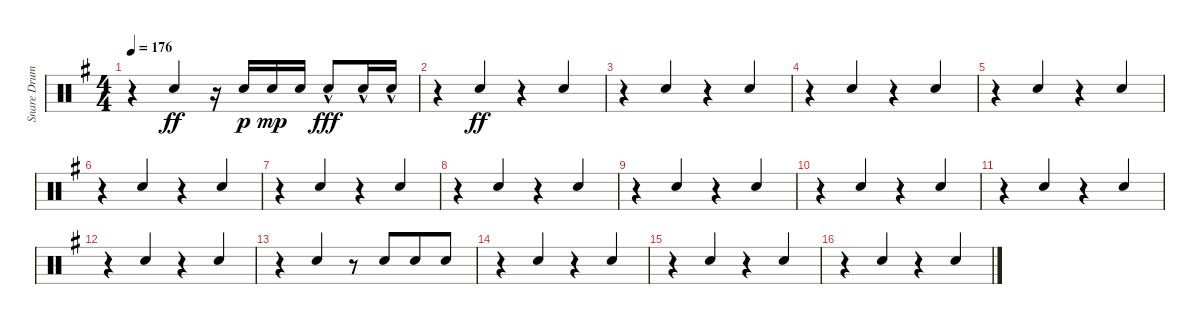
\track ("Snare Drum" "Snare Drum") {instrument percussion}
\staff {score}
\articulation defaults
\ts (4 4)
\tempo 176
\clef neutral
\ks eminor
r.4{dy ff} "Electric Snare (hit)".4{beam Up} r.16 "Snare (hit) 2".16{dy p beam Up} "Electric Snare (hit)".16{dy mp beam Up} "Electric Snare (hit)".16{beam Up} "Electric Snare (hit)"{hac}.8{dy fff beam Up} "Electric Snare (hit)"{hac}.16{beam Up} "Electric Snare (hit)"{hac}.16{beam Up} |
r.4 "Electric Snare (hit)".4{dy ff beam Up} r.4 "Electric Snare (hit)".4{beam Up} |
r.4 "Electric Snare (hit)".4{beam Up} r.4 "Electric Snare (hit)".4{beam Up} |
r.4 "Electric Snare (hit)".4{beam Up} r.4 "Electric Snare (hit)".4{beam Up} |
r.4 "Electric Snare (hit)".4{beam Up} r.4 "Electric Snare (hit)".4{beam Up} |
r.4 "Electric Snare (hit)".4{beam Up} r.4 "Electric Snare (hit)".4{beam Up} |
r.4 "Electric Snare (hit)".4{beam Up} r.4 "Electric Snare (hit)".4{beam Up} |
r.4 "Electric Snare (hit)".4{beam Up} r.4 "Electric Snare (hit)".4{beam Up} |
r.4 "Electric Snare (hit)".4{beam Up} r.4 "Electric Snare (hit)".4{beam Up} |
r.4 "Electric Snare (hit)".4{beam Up} r.4 "Electric Snare (hit)".4{beam Up} |
r.4 "Electric Snare (hit)".4{beam Up} r.4 "Electric Snare (hit)".4{beam Up} |
r.4 "Electric Snare (hit)".4{beam Up} r.4 "Electric Snare (hit)".4{beam Up} |
r.4 "Electric Snare (hit)".4{beam Up} r.8 "Electric Snare (hit)".8{beam Up beam merge} "Electric Snare (hit)".8{beam Up} "Electric Snare (hit)".8{beam Up} |
r.4 "Electric Snare (hit)".4{beam Up} r.4 "Electric Snare (hit)".4{beam Up} |
r.4 "Electric Snare (hit)".4{beam Up} r.4 "Electric Snare (hit)".4{beam Up} |
r.4 "Electric Snare (hit)".4{beam Up} r.4 "Electric Snare (hit)".4{beam Up}
